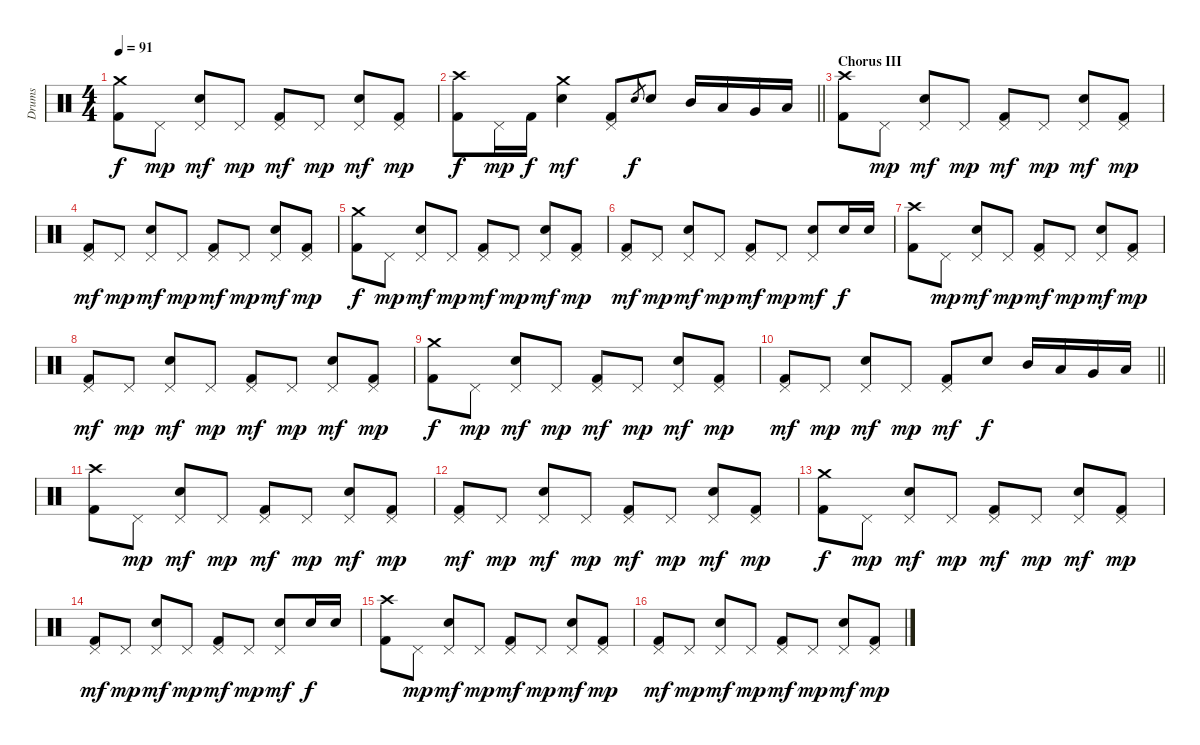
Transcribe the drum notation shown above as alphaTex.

\track ("Drums" "Drums") {instrument percussion}
\staff {score}
\articulation defaults
\ts (4 4)
\tempo 91
\clef neutral
\ks c
("Crash medium (hit)" "Kick (hit) 2").8{dy f} "Pedal Hi-Hat (hit)".8{dy mp} ("Pedal Hi-Hat (hit)" "Snare (hit) 2").8{dy mf} "Pedal Hi-Hat (hit)".8{dy mp} ("Pedal Hi-Hat (hit)" "Kick (hit) 2").8{dy mf} "Pedal Hi-Hat (hit)".8{dy mp} ("Pedal Hi-Hat (hit)" "Snare (hit) 2").8{dy mf} ("Pedal Hi-Hat (hit)" "Kick (hit) 2").8{dy mp} |
\barLineRight lightlight
("Crash high (hit)" "Kick (hit) 2").8{dy f} "Pedal Hi-Hat (hit)".16{dy mp} "Kick (hit) 2".16{dy f} ("Crash medium (hit)" "Snare (hit) 2").4{dy mf} ("Pedal Hi-Hat (hit)" "Kick (hit) 2").8 "Snare (hit) 2".8{gr dy f} "Snare (hit) 2".8 "Mid Tom (hit)".16 "Low Tom (hit)".16 "Very Low Tom (hit)".16 "Low Floor Tom (hit)".16 |
\section ("" "Chorus III")
("Crash high (hit)" "Kick (hit) 2").8 "Pedal Hi-Hat (hit)".8{dy mp} ("Pedal Hi-Hat (hit)" "Snare (hit) 2").8{dy mf} "Pedal Hi-Hat (hit)".8{dy mp} ("Pedal Hi-Hat (hit)" "Kick (hit) 2").8{dy mf} "Pedal Hi-Hat (hit)".8{dy mp} ("Pedal Hi-Hat (hit)" "Snare (hit) 2").8{dy mf} ("Pedal Hi-Hat (hit)" "Kick (hit) 2").8{dy mp} |
("Pedal Hi-Hat (hit)" "Kick (hit) 2").8{dy mf} "Pedal Hi-Hat (hit)".8{dy mp} ("Pedal Hi-Hat (hit)" "Snare (hit) 2").8{dy mf} "Pedal Hi-Hat (hit)".8{dy mp} ("Pedal Hi-Hat (hit)" "Kick (hit) 2").8{dy mf} "Pedal Hi-Hat (hit)".8{dy mp} ("Pedal Hi-Hat (hit)" "Snare (hit) 2").8{dy mf} ("Pedal Hi-Hat (hit)" "Kick (hit) 2").8{dy mp} |
("Crash medium (hit)" "Kick (hit) 2").8{dy f} "Pedal Hi-Hat (hit)".8{dy mp} ("Pedal Hi-Hat (hit)" "Snare (hit) 2").8{dy mf} "Pedal Hi-Hat (hit)".8{dy mp} ("Pedal Hi-Hat (hit)" "Kick (hit) 2").8{dy mf} "Pedal Hi-Hat (hit)".8{dy mp} ("Pedal Hi-Hat (hit)" "Snare (hit) 2").8{dy mf} ("Pedal Hi-Hat (hit)" "Kick (hit) 2").8{dy mp} |
("Pedal Hi-Hat (hit)" "Kick (hit) 2").8{dy mf} "Pedal Hi-Hat (hit)".8{dy mp} ("Pedal Hi-Hat (hit)" "Snare (hit) 2").8{dy mf} "Pedal Hi-Hat (hit)".8{dy mp} ("Pedal Hi-Hat (hit)" "Kick (hit) 2").8{dy mf} "Pedal Hi-Hat (hit)".8{dy mp} ("Pedal Hi-Hat (hit)" "Snare (hit) 2").8{dy mf} "Snare (hit) 2".16{dy f} "Snare (hit) 2".16 |
("Crash high (hit)" "Kick (hit) 2").8 "Pedal Hi-Hat (hit)".8{dy mp} ("Pedal Hi-Hat (hit)" "Snare (hit) 2").8{dy mf} "Pedal Hi-Hat (hit)".8{dy mp} ("Pedal Hi-Hat (hit)" "Kick (hit) 2").8{dy mf} "Pedal Hi-Hat (hit)".8{dy mp} ("Pedal Hi-Hat (hit)" "Snare (hit) 2").8{dy mf} ("Pedal Hi-Hat (hit)" "Kick (hit) 2").8{dy mp} |
("Pedal Hi-Hat (hit)" "Kick (hit) 2").8{dy mf} "Pedal Hi-Hat (hit)".8{dy mp} ("Pedal Hi-Hat (hit)" "Snare (hit) 2").8{dy mf} "Pedal Hi-Hat (hit)".8{dy mp} ("Pedal Hi-Hat (hit)" "Kick (hit) 2").8{dy mf} "Pedal Hi-Hat (hit)".8{dy mp} ("Pedal Hi-Hat (hit)" "Snare (hit) 2").8{dy mf} ("Pedal Hi-Hat (hit)" "Kick (hit) 2").8{dy mp} |
("Crash medium (hit)" "Kick (hit) 2").8{dy f} "Pedal Hi-Hat (hit)".8{dy mp} ("Pedal Hi-Hat (hit)" "Snare (hit) 2").8{dy mf} "Pedal Hi-Hat (hit)".8{dy mp} ("Pedal Hi-Hat (hit)" "Kick (hit) 2").8{dy mf} "Pedal Hi-Hat (hit)".8{dy mp} ("Pedal Hi-Hat (hit)" "Snare (hit) 2").8{dy mf} ("Pedal Hi-Hat (hit)" "Kick (hit) 2").8{dy mp} |
\barLineRight lightlight
("Pedal Hi-Hat (hit)" "Kick (hit) 2").8{dy mf} "Pedal Hi-Hat (hit)".8{dy mp} ("Pedal Hi-Hat (hit)" "Snare (hit) 2").8{dy mf} "Pedal Hi-Hat (hit)".8{dy mp} ("Pedal Hi-Hat (hit)" "Kick (hit) 2").8{dy mf} "Snare (hit) 2".8{dy f} "Mid Tom (hit)".16 "Low Tom (hit)".16 "Very Low Tom (hit)".16 "Low Floor Tom (hit)".16 |
("Crash high (hit)" "Kick (hit) 2").8 "Pedal Hi-Hat (hit)".8{dy mp} ("Pedal Hi-Hat (hit)" "Snare (hit) 2").8{dy mf} "Pedal Hi-Hat (hit)".8{dy mp} ("Pedal Hi-Hat (hit)" "Kick (hit) 2").8{dy mf} "Pedal Hi-Hat (hit)".8{dy mp} ("Pedal Hi-Hat (hit)" "Snare (hit) 2").8{dy mf} ("Pedal Hi-Hat (hit)" "Kick (hit) 2").8{dy mp} |
("Pedal Hi-Hat (hit)" "Kick (hit) 2").8{dy mf} "Pedal Hi-Hat (hit)".8{dy mp} ("Pedal Hi-Hat (hit)" "Snare (hit) 2").8{dy mf} "Pedal Hi-Hat (hit)".8{dy mp} ("Pedal Hi-Hat (hit)" "Kick (hit) 2").8{dy mf} "Pedal Hi-Hat (hit)".8{dy mp} ("Pedal Hi-Hat (hit)" "Snare (hit) 2").8{dy mf} ("Pedal Hi-Hat (hit)" "Kick (hit) 2").8{dy mp} |
("Crash medium (hit)" "Kick (hit) 2").8{dy f} "Pedal Hi-Hat (hit)".8{dy mp} ("Pedal Hi-Hat (hit)" "Snare (hit) 2").8{dy mf} "Pedal Hi-Hat (hit)".8{dy mp} ("Pedal Hi-Hat (hit)" "Kick (hit) 2").8{dy mf} "Pedal Hi-Hat (hit)".8{dy mp} ("Pedal Hi-Hat (hit)" "Snare (hit) 2").8{dy mf} ("Pedal Hi-Hat (hit)" "Kick (hit) 2").8{dy mp} |
("Pedal Hi-Hat (hit)" "Kick (hit) 2").8{dy mf} "Pedal Hi-Hat (hit)".8{dy mp} ("Pedal Hi-Hat (hit)" "Snare (hit) 2").8{dy mf} "Pedal Hi-Hat (hit)".8{dy mp} ("Pedal Hi-Hat (hit)" "Kick (hit) 2").8{dy mf} "Pedal Hi-Hat (hit)".8{dy mp} ("Pedal Hi-Hat (hit)" "Snare (hit) 2").8{dy mf} "Snare (hit) 2".16{dy f} "Snare (hit) 2".16 |
("Crash high (hit)" "Kick (hit) 2").8 "Pedal Hi-Hat (hit)".8{dy mp} ("Pedal Hi-Hat (hit)" "Snare (hit) 2").8{dy mf} "Pedal Hi-Hat (hit)".8{dy mp} ("Pedal Hi-Hat (hit)" "Kick (hit) 2").8{dy mf} "Pedal Hi-Hat (hit)".8{dy mp} ("Pedal Hi-Hat (hit)" "Snare (hit) 2").8{dy mf} ("Pedal Hi-Hat (hit)" "Kick (hit) 2").8{dy mp} |
("Pedal Hi-Hat (hit)" "Kick (hit) 2").8{dy mf} "Pedal Hi-Hat (hit)".8{dy mp} ("Pedal Hi-Hat (hit)" "Snare (hit) 2").8{dy mf} "Pedal Hi-Hat (hit)".8{dy mp} ("Pedal Hi-Hat (hit)" "Kick (hit) 2").8{dy mf} "Pedal Hi-Hat (hit)".8{dy mp} ("Pedal Hi-Hat (hit)" "Snare (hit) 2").8{dy mf} ("Pedal Hi-Hat (hit)" "Kick (hit) 2").8{dy mp}
